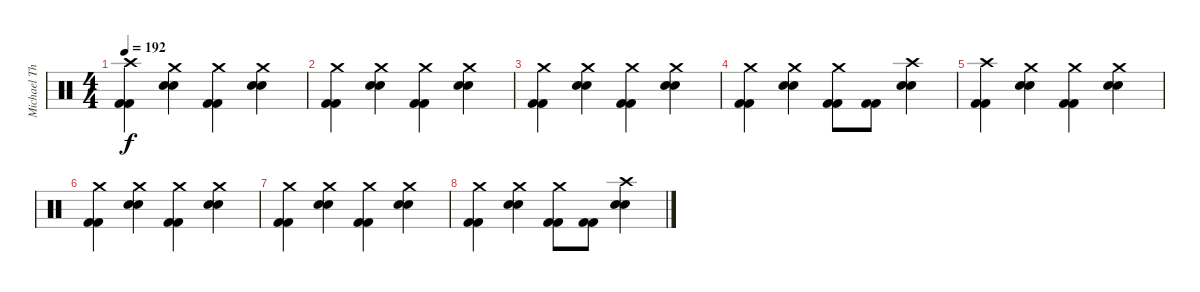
\track ("Michael Thomas" "Michael Th") {instrument percussion}
\staff {score}
\articulation defaults
\ts (4 4)
\tempo 192
\clef neutral
\ks c
("Crash high (hit)" "Kick (hit) 2" "Kick (hit) 2").4{dy f} ("Crash medium (hit)" "Snare (hit) 2" "Snare (hit) 2").4 ("Crash medium (hit)" "Kick (hit) 2" "Kick (hit) 2").4 ("Crash medium (hit)" "Snare (hit) 2" "Snare (hit) 2").4 |
("Crash medium (hit)" "Kick (hit) 2" "Kick (hit) 2").4 ("Crash medium (hit)" "Snare (hit) 2" "Snare (hit) 2").4 ("Crash medium (hit)" "Kick (hit) 2" "Kick (hit) 2").4 ("Crash medium (hit)" "Snare (hit) 2" "Snare (hit) 2").4 |
("Crash medium (hit)" "Kick (hit) 2" "Kick (hit) 2").4 ("Crash medium (hit)" "Snare (hit) 2" "Snare (hit) 2").4 ("Crash medium (hit)" "Kick (hit) 2" "Kick (hit) 2").4 ("Crash medium (hit)" "Snare (hit) 2" "Snare (hit) 2").4 |
("Crash medium (hit)" "Kick (hit) 2" "Kick (hit) 2").4 ("Crash medium (hit)" "Snare (hit) 2" "Snare (hit) 2").4 ("Crash medium (hit)" "Kick (hit) 2" "Kick (hit) 2").8 ("Kick (hit) 2" "Kick (hit) 2").8 ("Crash high (hit)" "Snare (hit) 2" "Snare (hit) 2").4 |
("Crash high (hit)" "Kick (hit) 2" "Kick (hit) 2").4 ("Crash medium (hit)" "Snare (hit) 2" "Snare (hit) 2").4 ("Crash medium (hit)" "Kick (hit) 2" "Kick (hit) 2").4 ("Crash medium (hit)" "Snare (hit) 2" "Snare (hit) 2").4 |
("Crash medium (hit)" "Kick (hit) 2" "Kick (hit) 2").4 ("Crash medium (hit)" "Snare (hit) 2" "Snare (hit) 2").4 ("Crash medium (hit)" "Kick (hit) 2" "Kick (hit) 2").4 ("Crash medium (hit)" "Snare (hit) 2" "Snare (hit) 2").4 |
("Crash medium (hit)" "Kick (hit) 2" "Kick (hit) 2").4 ("Crash medium (hit)" "Snare (hit) 2" "Snare (hit) 2").4 ("Crash medium (hit)" "Kick (hit) 2" "Kick (hit) 2").4 ("Crash medium (hit)" "Snare (hit) 2" "Snare (hit) 2").4 |
("Crash medium (hit)" "Kick (hit) 2" "Kick (hit) 2").4 ("Crash medium (hit)" "Snare (hit) 2" "Snare (hit) 2").4 ("Crash medium (hit)" "Kick (hit) 2" "Kick (hit) 2").8 ("Kick (hit) 2" "Kick (hit) 2").8 ("Crash high (hit)" "Snare (hit) 2" "Snare (hit) 2").4
